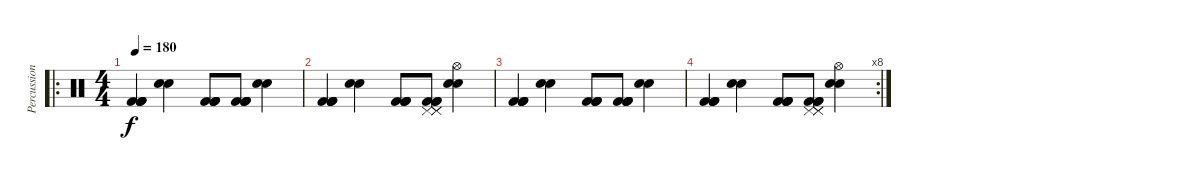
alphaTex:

\track ("Percussions" "Percussion") {instrument percussion}
\staff {score}
\articulation defaults
\ro
\ts (4 4)
\tempo 180
\clef neutral
\ks c
("Kick (hit) 2" "Kick (hit) 2" "Kick (hit) 2" "Kick (hit) 2").4{dy f} ("Electric Snare (hit)" "Electric Snare (hit)").4 ("Kick (hit) 2" "Kick (hit) 2" "Kick (hit) 2" "Kick (hit) 2").8 ("Kick (hit) 2" "Kick (hit) 2" "Kick (hit) 2" "Kick (hit) 2").8 ("Electric Snare (hit)" "Electric Snare (hit)").4 |
("Kick (hit) 2" "Kick (hit) 2" "Kick (hit) 2" "Kick (hit) 2").4 ("Electric Snare (hit)" "Electric Snare (hit)").4 ("Kick (hit) 2" "Kick (hit) 2" "Kick (hit) 2" "Kick (hit) 2").8 ("Kick (hit) 2" "Kick (hit) 2" "Kick (hit) 2" "Pedal Hi-Hat (hit)" "Pedal Hi-Hat (hit)" "Pedal Hi-Hat (hit)").8 ("Electric Snare (hit)" "Electric Snare (hit)" "Hi-Hat (open)").4 |
("Kick (hit) 2" "Kick (hit) 2" "Kick (hit) 2" "Kick (hit) 2").4 ("Electric Snare (hit)" "Electric Snare (hit)").4 ("Kick (hit) 2" "Kick (hit) 2" "Kick (hit) 2" "Kick (hit) 2").8 ("Kick (hit) 2" "Kick (hit) 2" "Kick (hit) 2" "Kick (hit) 2").8 ("Electric Snare (hit)" "Electric Snare (hit)").4 |
\rc 8
("Kick (hit) 2" "Kick (hit) 2" "Kick (hit) 2" "Kick (hit) 2").4 ("Electric Snare (hit)" "Electric Snare (hit)").4 ("Kick (hit) 2" "Kick (hit) 2" "Kick (hit) 2" "Kick (hit) 2").8 ("Kick (hit) 2" "Kick (hit) 2" "Kick (hit) 2" "Pedal Hi-Hat (hit)" "Pedal Hi-Hat (hit)" "Pedal Hi-Hat (hit)").8 ("Electric Snare (hit)" "Electric Snare (hit)" "Hi-Hat (open)").4
